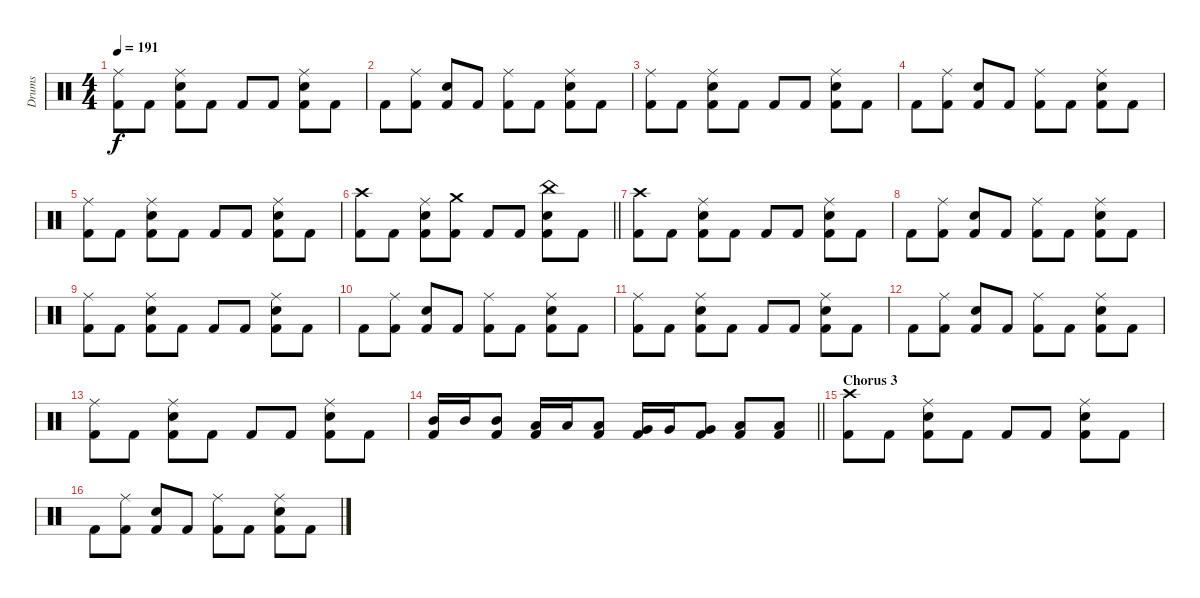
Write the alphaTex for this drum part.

\track ("Drums" "Drums") {instrument percussion}
\staff {score}
\articulation defaults
\ts (4 4)
\tempo 191
\clef neutral
\ks c
("Ride (middle)" "Kick (hit) 2").8{dy f} "Kick (hit) 2".8 ("Ride (middle)" "Snare (hit) 2" "Kick (hit) 2").8 "Kick (hit) 2".8 "Kick (hit) 2".8 "Kick (hit) 2".8 ("Ride (middle)" "Snare (hit) 2" "Kick (hit) 2").8 "Kick (hit) 2".8 |
"Kick (hit) 2".8 ("Ride (middle)" "Kick (hit) 2").8 ("Snare (hit) 2" "Kick (hit) 2").8 "Kick (hit) 2".8 ("Ride (middle)" "Kick (hit) 2").8 "Kick (hit) 2".8 ("Ride (middle)" "Snare (hit) 2" "Kick (hit) 2").8 "Kick (hit) 2".8 |
("Ride (middle)" "Kick (hit) 2").8 "Kick (hit) 2".8 ("Ride (middle)" "Snare (hit) 2" "Kick (hit) 2").8 "Kick (hit) 2".8 "Kick (hit) 2".8 "Kick (hit) 2".8 ("Ride (middle)" "Snare (hit) 2" "Kick (hit) 2").8 "Kick (hit) 2".8 |
"Kick (hit) 2".8 ("Ride (middle)" "Kick (hit) 2").8 ("Snare (hit) 2" "Kick (hit) 2").8 "Kick (hit) 2".8 ("Ride (middle)" "Kick (hit) 2").8 "Kick (hit) 2".8 ("Ride (middle)" "Snare (hit) 2" "Kick (hit) 2").8 "Kick (hit) 2".8 |
("Ride (middle)" "Kick (hit) 2").8 "Kick (hit) 2".8 ("Ride (middle)" "Snare (hit) 2" "Kick (hit) 2").8 "Kick (hit) 2".8 "Kick (hit) 2".8 "Kick (hit) 2".8 ("Ride (middle)" "Snare (hit) 2" "Kick (hit) 2").8 "Kick (hit) 2".8 |
\barLineRight lightlight
("Crash high (hit)" "Kick (hit) 2").8 "Kick (hit) 2".8 ("Ride (middle)" "Snare (hit) 2" "Kick (hit) 2").8 ("Crash medium (hit)" "Kick (hit) 2").8 "Kick (hit) 2".8 "Kick (hit) 2".8 ("China (hit)" "Snare (hit) 2" "Kick (hit) 2").8 "Kick (hit) 2".8 |
\section ("" "")
("Crash high (hit)" "Kick (hit) 2").8 "Kick (hit) 2".8 ("Ride (middle)" "Snare (hit) 2" "Kick (hit) 2").8 "Kick (hit) 2".8 "Kick (hit) 2".8 "Kick (hit) 2".8 ("Ride (middle)" "Snare (hit) 2" "Kick (hit) 2").8 "Kick (hit) 2".8 |
"Kick (hit) 2".8 ("Ride (middle)" "Kick (hit) 2").8 ("Snare (hit) 2" "Kick (hit) 2").8 "Kick (hit) 2".8 ("Ride (middle)" "Kick (hit) 2").8 "Kick (hit) 2".8 ("Ride (middle)" "Snare (hit) 2" "Kick (hit) 2").8 "Kick (hit) 2".8 |
("Ride (middle)" "Kick (hit) 2").8 "Kick (hit) 2".8 ("Ride (middle)" "Snare (hit) 2" "Kick (hit) 2").8 "Kick (hit) 2".8 "Kick (hit) 2".8 "Kick (hit) 2".8 ("Ride (middle)" "Snare (hit) 2" "Kick (hit) 2").8 "Kick (hit) 2".8 |
"Kick (hit) 2".8 ("Ride (middle)" "Kick (hit) 2").8 ("Snare (hit) 2" "Kick (hit) 2").8 "Kick (hit) 2".8 ("Ride (middle)" "Kick (hit) 2").8 "Kick (hit) 2".8 ("Ride (middle)" "Snare (hit) 2" "Kick (hit) 2").8 "Kick (hit) 2".8 |
("Ride (middle)" "Kick (hit) 2").8 "Kick (hit) 2".8 ("Ride (middle)" "Snare (hit) 2" "Kick (hit) 2").8 "Kick (hit) 2".8 "Kick (hit) 2".8 "Kick (hit) 2".8 ("Ride (middle)" "Snare (hit) 2" "Kick (hit) 2").8 "Kick (hit) 2".8 |
"Kick (hit) 2".8 ("Ride (middle)" "Kick (hit) 2").8 ("Snare (hit) 2" "Kick (hit) 2").8 "Kick (hit) 2".8 ("Ride (middle)" "Kick (hit) 2").8 "Kick (hit) 2".8 ("Ride (middle)" "Snare (hit) 2" "Kick (hit) 2").8 "Kick (hit) 2".8 |
("Ride (middle)" "Kick (hit) 2").8 "Kick (hit) 2".8 ("Ride (middle)" "Snare (hit) 2" "Kick (hit) 2").8 "Kick (hit) 2".8 "Kick (hit) 2".8 "Kick (hit) 2".8 ("Ride (middle)" "Snare (hit) 2" "Kick (hit) 2").8 "Kick (hit) 2".8 |
\barLineRight lightlight
("Mid Tom (hit)" "Kick (hit) 2").16 "Mid Tom (hit)".16 ("Mid Tom (hit)" "Kick (hit) 2").8 ("Low Tom (hit)" "Kick (hit) 2").16 "Low Tom (hit)".16 ("Low Tom (hit)" "Kick (hit) 2").8 ("Very Low Tom (hit)" "Kick (hit) 2").16 "Very Low Tom (hit)".16 ("Very Low Tom (hit)" "Kick (hit) 2").8 ("Low Floor Tom (hit)" "Kick (hit) 2").8 ("Low Floor Tom (hit)" "Kick (hit) 2").8 |
\section ("" "Chorus 3")
("Crash high (hit)" "Kick (hit) 2").8 "Kick (hit) 2".8 ("Ride (middle)" "Snare (hit) 2" "Kick (hit) 2").8 "Kick (hit) 2".8 "Kick (hit) 2".8 "Kick (hit) 2".8 ("Ride (middle)" "Snare (hit) 2" "Kick (hit) 2").8 "Kick (hit) 2".8 |
"Kick (hit) 2".8 ("Ride (middle)" "Kick (hit) 2").8 ("Snare (hit) 2" "Kick (hit) 2").8 "Kick (hit) 2".8 ("Ride (middle)" "Kick (hit) 2").8 "Kick (hit) 2".8 ("Ride (middle)" "Snare (hit) 2" "Kick (hit) 2").8 "Kick (hit) 2".8
